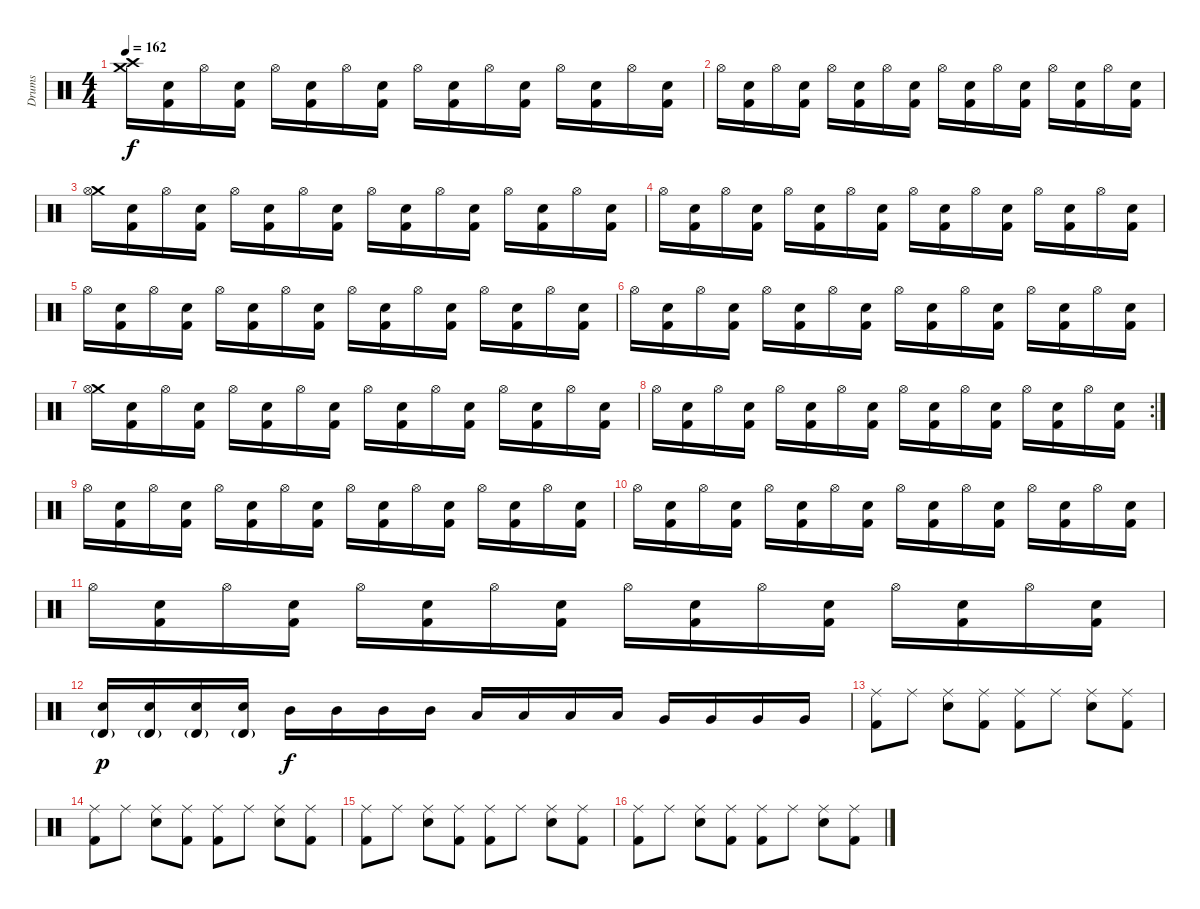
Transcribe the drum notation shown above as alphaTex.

\track ("Drums" "Drums") {instrument percussion}
\staff {score}
\articulation defaults
\ts (4 4)
\tempo 162
\clef neutral
\ks c
("Crash medium (hit)" "Crash high (hit)").16{dy f} ("Electric Snare (hit)" "Kick (hit) 2").16 "Hi-Hat (open)".16 ("Electric Snare (hit)" "Kick (hit) 2").16 "Hi-Hat (open)".16 ("Electric Snare (hit)" "Kick (hit) 2").16 "Hi-Hat (open)".16 ("Electric Snare (hit)" "Kick (hit) 2").16 "Hi-Hat (open)".16 ("Electric Snare (hit)" "Kick (hit) 2").16 "Hi-Hat (open)".16 ("Electric Snare (hit)" "Kick (hit) 2").16 "Hi-Hat (open)".16 ("Electric Snare (hit)" "Kick (hit) 2").16 "Hi-Hat (open)".16 ("Electric Snare (hit)" "Kick (hit) 2").16 |
"Hi-Hat (open)".16 ("Electric Snare (hit)" "Kick (hit) 2").16 "Hi-Hat (open)".16 ("Electric Snare (hit)" "Kick (hit) 2").16 "Hi-Hat (open)".16 ("Electric Snare (hit)" "Kick (hit) 2").16 "Hi-Hat (open)".16 ("Electric Snare (hit)" "Kick (hit) 2").16 "Hi-Hat (open)".16 ("Electric Snare (hit)" "Kick (hit) 2").16 "Hi-Hat (open)".16 ("Electric Snare (hit)" "Kick (hit) 2").16 "Hi-Hat (open)".16 ("Electric Snare (hit)" "Kick (hit) 2").16 "Hi-Hat (open)".16 ("Electric Snare (hit)" "Kick (hit) 2").16 |
("Crash medium (hit)" "Hi-Hat (open)").16 ("Electric Snare (hit)" "Kick (hit) 2").16 "Hi-Hat (open)".16 ("Electric Snare (hit)" "Kick (hit) 2").16 "Hi-Hat (open)".16 ("Electric Snare (hit)" "Kick (hit) 2").16 "Hi-Hat (open)".16 ("Electric Snare (hit)" "Kick (hit) 2").16 "Hi-Hat (open)".16 ("Electric Snare (hit)" "Kick (hit) 2").16 "Hi-Hat (open)".16 ("Electric Snare (hit)" "Kick (hit) 2").16 "Hi-Hat (open)".16 ("Electric Snare (hit)" "Kick (hit) 2").16 "Hi-Hat (open)".16 ("Electric Snare (hit)" "Kick (hit) 2").16 |
"Hi-Hat (open)".16 ("Electric Snare (hit)" "Kick (hit) 2").16 "Hi-Hat (open)".16 ("Electric Snare (hit)" "Kick (hit) 2").16 "Hi-Hat (open)".16 ("Electric Snare (hit)" "Kick (hit) 2").16 "Hi-Hat (open)".16 ("Electric Snare (hit)" "Kick (hit) 2").16 "Hi-Hat (open)".16 ("Electric Snare (hit)" "Kick (hit) 2").16 "Hi-Hat (open)".16 ("Electric Snare (hit)" "Kick (hit) 2").16 "Hi-Hat (open)".16 ("Electric Snare (hit)" "Kick (hit) 2").16 "Hi-Hat (open)".16 ("Electric Snare (hit)" "Kick (hit) 2").16 |
"Hi-Hat (open)".16 ("Electric Snare (hit)" "Kick (hit) 2").16 "Hi-Hat (open)".16 ("Electric Snare (hit)" "Kick (hit) 2").16 "Hi-Hat (open)".16 ("Electric Snare (hit)" "Kick (hit) 2").16 "Hi-Hat (open)".16 ("Electric Snare (hit)" "Kick (hit) 2").16 "Hi-Hat (open)".16 ("Electric Snare (hit)" "Kick (hit) 2").16 "Hi-Hat (open)".16 ("Electric Snare (hit)" "Kick (hit) 2").16 "Hi-Hat (open)".16 ("Electric Snare (hit)" "Kick (hit) 2").16 "Hi-Hat (open)".16 ("Electric Snare (hit)" "Kick (hit) 2").16 |
"Hi-Hat (open)".16 ("Electric Snare (hit)" "Kick (hit) 2").16 "Hi-Hat (open)".16 ("Electric Snare (hit)" "Kick (hit) 2").16 "Hi-Hat (open)".16 ("Electric Snare (hit)" "Kick (hit) 2").16 "Hi-Hat (open)".16 ("Electric Snare (hit)" "Kick (hit) 2").16 "Hi-Hat (open)".16 ("Electric Snare (hit)" "Kick (hit) 2").16 "Hi-Hat (open)".16 ("Electric Snare (hit)" "Kick (hit) 2").16 "Hi-Hat (open)".16 ("Electric Snare (hit)" "Kick (hit) 2").16 "Hi-Hat (open)".16 ("Electric Snare (hit)" "Kick (hit) 2").16 |
("Crash medium (hit)" "Hi-Hat (open)").16 ("Electric Snare (hit)" "Kick (hit) 2").16 "Hi-Hat (open)".16 ("Electric Snare (hit)" "Kick (hit) 2").16 "Hi-Hat (open)".16 ("Electric Snare (hit)" "Kick (hit) 2").16 "Hi-Hat (open)".16 ("Electric Snare (hit)" "Kick (hit) 2").16 "Hi-Hat (open)".16 ("Electric Snare (hit)" "Kick (hit) 2").16 "Hi-Hat (open)".16 ("Electric Snare (hit)" "Kick (hit) 2").16 "Hi-Hat (open)".16 ("Electric Snare (hit)" "Kick (hit) 2").16 "Hi-Hat (open)".16 ("Electric Snare (hit)" "Kick (hit) 2").16 |
\rc 2 "Hi-Hat (open)".16
("Electric Snare (hit)" "Kick (hit) 2").16 "Hi-Hat (open)".16 ("Electric Snare (hit)" "Kick (hit) 2").16 "Hi-Hat (open)".16 ("Electric Snare (hit)" "Kick (hit) 2").16 "Hi-Hat (open)".16 ("Electric Snare (hit)" "Kick (hit) 2").16 "Hi-Hat (open)".16 ("Electric Snare (hit)" "Kick (hit) 2").16 "Hi-Hat (open)".16 ("Electric Snare (hit)" "Kick (hit) 2").16 "Hi-Hat (open)".16 ("Electric Snare (hit)" "Kick (hit) 2").16 "Hi-Hat (open)".16 ("Electric Snare (hit)" "Kick (hit) 2").16 |
"Hi-Hat (open)".16 ("Electric Snare (hit)" "Kick (hit) 2").16 "Hi-Hat (open)".16 ("Electric Snare (hit)" "Kick (hit) 2").16 "Hi-Hat (open)".16 ("Electric Snare (hit)" "Kick (hit) 2").16 "Hi-Hat (open)".16 ("Electric Snare (hit)" "Kick (hit) 2").16 "Hi-Hat (open)".16 ("Electric Snare (hit)" "Kick (hit) 2").16 "Hi-Hat (open)".16 ("Electric Snare (hit)" "Kick (hit) 2").16 "Hi-Hat (open)".16 ("Electric Snare (hit)" "Kick (hit) 2").16 "Hi-Hat (open)".16 ("Electric Snare (hit)" "Kick (hit) 2").16 |
"Hi-Hat (open)".16 ("Electric Snare (hit)" "Kick (hit) 2").16 "Hi-Hat (open)".16 ("Electric Snare (hit)" "Kick (hit) 2").16 "Hi-Hat (open)".16 ("Electric Snare (hit)" "Kick (hit) 2").16 "Hi-Hat (open)".16 ("Electric Snare (hit)" "Kick (hit) 2").16 "Hi-Hat (open)".16 ("Electric Snare (hit)" "Kick (hit) 2").16 "Hi-Hat (open)".16 ("Electric Snare (hit)" "Kick (hit) 2").16 "Hi-Hat (open)".16 ("Electric Snare (hit)" "Kick (hit) 2").16 "Hi-Hat (open)".16 ("Electric Snare (hit)" "Kick (hit) 2").16 |
"Hi-Hat (open)".16 ("Electric Snare (hit)" "Kick (hit) 2").16 "Hi-Hat (open)".16 ("Electric Snare (hit)" "Kick (hit) 2").16 "Hi-Hat (open)".16 ("Electric Snare (hit)" "Kick (hit) 2").16 "Hi-Hat (open)".16 ("Electric Snare (hit)" "Kick (hit) 2").16 "Hi-Hat (open)".16 ("Electric Snare (hit)" "Kick (hit) 2").16 "Hi-Hat (open)".16 ("Electric Snare (hit)" "Kick (hit) 2").16 "Hi-Hat (open)".16 ("Electric Snare (hit)" "Kick (hit) 2").16 "Hi-Hat (open)".16 ("Electric Snare (hit)" "Kick (hit) 2").16 |
("Electric Snare (hit)" "Timbale high (hit)"{g}).16{dy p} ("Electric Snare (hit)" "Timbale high (hit)"{g}).16 ("Electric Snare (hit)" "Timbale high (hit)"{g}).16 ("Electric Snare (hit)" "Timbale high (hit)"{g}).16 "Mid Tom (hit)".16{dy f} "Mid Tom (hit)".16 "Mid Tom (hit)".16 "Mid Tom (hit)".16 "Low Tom (hit)".16 "Low Tom (hit)".16 "Low Tom (hit)".16 "Low Tom (hit)".16 "Very Low Tom (hit)".16 "Very Low Tom (hit)".16 "Very Low Tom (hit)".16 "Very Low Tom (hit)".16 |
("Ride (middle)" "Kick (hit) 2").8 "Ride (middle)".8 ("Ride (middle)" "Electric Snare (hit)").8 ("Ride (middle)" "Kick (hit) 2").8 ("Ride (middle)" "Kick (hit) 2").8 "Ride (middle)".8 ("Ride (middle)" "Electric Snare (hit)").8 ("Ride (middle)" "Kick (hit) 2").8 |
("Ride (middle)" "Kick (hit) 2").8 "Ride (middle)".8 ("Ride (middle)" "Electric Snare (hit)").8 ("Ride (middle)" "Kick (hit) 2").8 ("Ride (middle)" "Kick (hit) 2").8 "Ride (middle)".8 ("Ride (middle)" "Electric Snare (hit)").8 ("Ride (middle)" "Kick (hit) 2").8 |
("Ride (middle)" "Kick (hit) 2").8 "Ride (middle)".8 ("Ride (middle)" "Electric Snare (hit)").8 ("Ride (middle)" "Kick (hit) 2").8 ("Ride (middle)" "Kick (hit) 2").8 "Ride (middle)".8 ("Ride (middle)" "Electric Snare (hit)").8 ("Ride (middle)" "Kick (hit) 2").8 |
("Ride (middle)" "Kick (hit) 2").8 "Ride (middle)".8 ("Ride (middle)" "Electric Snare (hit)").8 ("Ride (middle)" "Kick (hit) 2").8 ("Ride (middle)" "Kick (hit) 2").8 "Ride (middle)".8 ("Ride (middle)" "Electric Snare (hit)").8 ("Ride (middle)" "Kick (hit) 2").8
